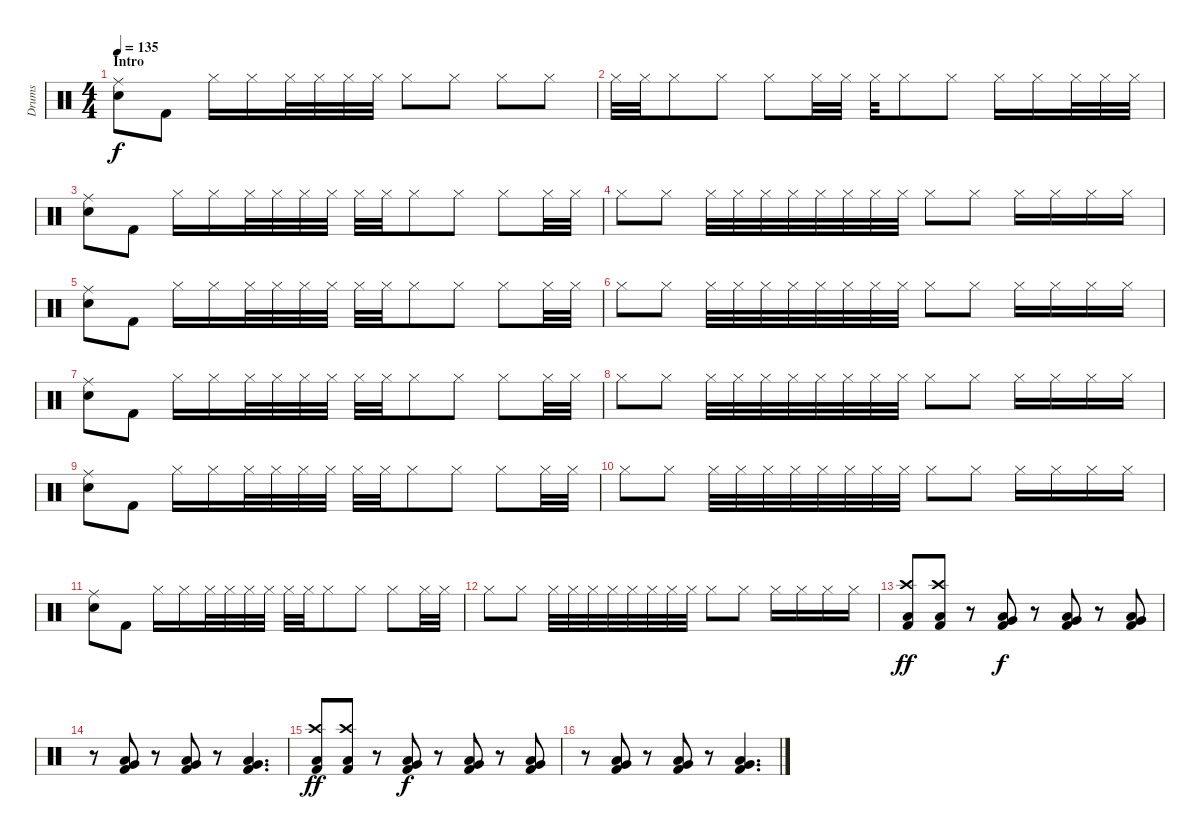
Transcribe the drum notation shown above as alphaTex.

\track ("Drums" "Drums") {instrument percussion}
\staff {score}
\articulation defaults
\ts (4 4)
\section ("" "Intro")
\tempo 135
\clef neutral
\ks c
("Ride (middle)" "Electric Snare (hit)").8{dy f} "Kick (hit) 2".8 "Hi-Hat (closed)".16 "Hi-Hat (closed)".16 "Hi-Hat (closed)".32 "Hi-Hat (closed)".32 "Hi-Hat (closed)".32 "Hi-Hat (closed)".32 "Hi-Hat (closed)".8 "Hi-Hat (closed)".8 "Hi-Hat (closed)".8 "Hi-Hat (closed)".8 |
"Hi-Hat (closed)".32 "Hi-Hat (closed)".32 "Hi-Hat (closed)".8 "Hi-Hat (closed)".8 "Hi-Hat (closed)".8 "Hi-Hat (closed)".32 "Hi-Hat (closed)".32 "Hi-Hat (closed)".32 "Hi-Hat (closed)".8 "Hi-Hat (closed)".8 "Hi-Hat (closed)".16 "Hi-Hat (closed)".16 "Hi-Hat (closed)".32 "Hi-Hat (closed)".32 "Hi-Hat (closed)".32 |
("Ride (middle)" "Electric Snare (hit)").8 "Kick (hit) 2".8 "Hi-Hat (closed)".16 "Hi-Hat (closed)".16 "Hi-Hat (closed)".32 "Hi-Hat (closed)".32 "Hi-Hat (closed)".32 "Hi-Hat (closed)".32 "Hi-Hat (closed)".32 "Hi-Hat (closed)".32 "Hi-Hat (closed)".8 "Hi-Hat (closed)".8 "Hi-Hat (closed)".8 "Hi-Hat (closed)".32 "Hi-Hat (closed)".32 |
"Hi-Hat (closed)".8 "Hi-Hat (closed)".8 "Hi-Hat (closed)".32 "Hi-Hat (closed)".32 "Hi-Hat (closed)".32 "Hi-Hat (closed)".32 "Hi-Hat (closed)".32 "Hi-Hat (closed)".32 "Hi-Hat (closed)".32 "Hi-Hat (closed)".32 "Hi-Hat (closed)".8 "Hi-Hat (closed)".8 "Hi-Hat (closed)".16 "Hi-Hat (closed)".16 "Hi-Hat (closed)".16 "Hi-Hat (closed)".16 |
("Ride (middle)" "Electric Snare (hit)").8 "Kick (hit) 2".8 "Hi-Hat (closed)".16 "Hi-Hat (closed)".16 "Hi-Hat (closed)".32 "Hi-Hat (closed)".32 "Hi-Hat (closed)".32 "Hi-Hat (closed)".32 "Hi-Hat (closed)".32 "Hi-Hat (closed)".32 "Hi-Hat (closed)".8 "Hi-Hat (closed)".8 "Hi-Hat (closed)".8 "Hi-Hat (closed)".32 "Hi-Hat (closed)".32 |
"Hi-Hat (closed)".8 "Hi-Hat (closed)".8 "Hi-Hat (closed)".32 "Hi-Hat (closed)".32 "Hi-Hat (closed)".32 "Hi-Hat (closed)".32 "Hi-Hat (closed)".32 "Hi-Hat (closed)".32 "Hi-Hat (closed)".32 "Hi-Hat (closed)".32 "Hi-Hat (closed)".8 "Hi-Hat (closed)".8 "Hi-Hat (closed)".16 "Hi-Hat (closed)".16 "Hi-Hat (closed)".16 "Hi-Hat (closed)".16 |
("Ride (middle)" "Electric Snare (hit)").8 "Kick (hit) 2".8 "Hi-Hat (closed)".16 "Hi-Hat (closed)".16 "Hi-Hat (closed)".32 "Hi-Hat (closed)".32 "Hi-Hat (closed)".32 "Hi-Hat (closed)".32 "Hi-Hat (closed)".32 "Hi-Hat (closed)".32 "Hi-Hat (closed)".8 "Hi-Hat (closed)".8 "Hi-Hat (closed)".8 "Hi-Hat (closed)".32 "Hi-Hat (closed)".32 |
"Hi-Hat (closed)".8 "Hi-Hat (closed)".8 "Hi-Hat (closed)".32 "Hi-Hat (closed)".32 "Hi-Hat (closed)".32 "Hi-Hat (closed)".32 "Hi-Hat (closed)".32 "Hi-Hat (closed)".32 "Hi-Hat (closed)".32 "Hi-Hat (closed)".32 "Hi-Hat (closed)".8 "Hi-Hat (closed)".8 "Hi-Hat (closed)".16 "Hi-Hat (closed)".16 "Hi-Hat (closed)".16 "Hi-Hat (closed)".16 |
("Ride (middle)" "Electric Snare (hit)").8 "Kick (hit) 2".8 "Hi-Hat (closed)".16 "Hi-Hat (closed)".16 "Hi-Hat (closed)".32 "Hi-Hat (closed)".32 "Hi-Hat (closed)".32 "Hi-Hat (closed)".32 "Hi-Hat (closed)".32 "Hi-Hat (closed)".32 "Hi-Hat (closed)".8 "Hi-Hat (closed)".8 "Hi-Hat (closed)".8 "Hi-Hat (closed)".32 "Hi-Hat (closed)".32 |
"Hi-Hat (closed)".8 "Hi-Hat (closed)".8 "Hi-Hat (closed)".32 "Hi-Hat (closed)".32 "Hi-Hat (closed)".32 "Hi-Hat (closed)".32 "Hi-Hat (closed)".32 "Hi-Hat (closed)".32 "Hi-Hat (closed)".32 "Hi-Hat (closed)".32 "Hi-Hat (closed)".8 "Hi-Hat (closed)".8 "Hi-Hat (closed)".16 "Hi-Hat (closed)".16 "Hi-Hat (closed)".16 "Hi-Hat (closed)".16 |
("Ride (middle)" "Electric Snare (hit)").8 "Kick (hit) 2".8 "Hi-Hat (closed)".16 "Hi-Hat (closed)".16 "Hi-Hat (closed)".32 "Hi-Hat (closed)".32 "Hi-Hat (closed)".32 "Hi-Hat (closed)".32 "Hi-Hat (closed)".32 "Hi-Hat (closed)".32 "Hi-Hat (closed)".8 "Hi-Hat (closed)".8 "Hi-Hat (closed)".8 "Hi-Hat (closed)".32 "Hi-Hat (closed)".32 |
"Hi-Hat (closed)".8 "Hi-Hat (closed)".8 "Hi-Hat (closed)".32 "Hi-Hat (closed)".32 "Hi-Hat (closed)".32 "Hi-Hat (closed)".32 "Hi-Hat (closed)".32 "Hi-Hat (closed)".32 "Hi-Hat (closed)".32 "Hi-Hat (closed)".32 "Hi-Hat (closed)".8 "Hi-Hat (closed)".8 "Hi-Hat (closed)".16 "Hi-Hat (closed)".16 "Hi-Hat (closed)".16 "Hi-Hat (closed)".16 |
("Crash high (hit)" "Low Floor Tom (hit)" "Kick (hit) 2").8{dy ff} ("Crash high (hit)" "Low Floor Tom (hit)" "Kick (hit) 2").8 r.8 ("Very Low Tom (hit)" "Low Floor Tom (hit)" "Kick (hit) 2").8{dy f} r.8 ("Very Low Tom (hit)" "Low Floor Tom (hit)" "Kick (hit) 2").8 r.8 ("Very Low Tom (hit)" "Low Floor Tom (hit)" "Kick (hit) 2").8 |
r.8 ("Very Low Tom (hit)" "Low Floor Tom (hit)" "Kick (hit) 2").8 r.8 ("Very Low Tom (hit)" "Low Floor Tom (hit)" "Kick (hit) 2").8 r.8 ("Very Low Tom (hit)" "Low Floor Tom (hit)" "Kick (hit) 2").4{d} |
("Crash high (hit)" "Low Floor Tom (hit)" "Kick (hit) 2").8{dy ff} ("Crash high (hit)" "Low Floor Tom (hit)" "Kick (hit) 2").8 r.8 ("Very Low Tom (hit)" "Low Floor Tom (hit)" "Kick (hit) 2").8{dy f} r.8 ("Very Low Tom (hit)" "Low Floor Tom (hit)" "Kick (hit) 2").8 r.8 ("Very Low Tom (hit)" "Low Floor Tom (hit)" "Kick (hit) 2").8 |
r.8 ("Very Low Tom (hit)" "Low Floor Tom (hit)" "Kick (hit) 2").8 r.8 ("Very Low Tom (hit)" "Low Floor Tom (hit)" "Kick (hit) 2").8 r.8 ("Very Low Tom (hit)" "Low Floor Tom (hit)" "Kick (hit) 2").4{d}
